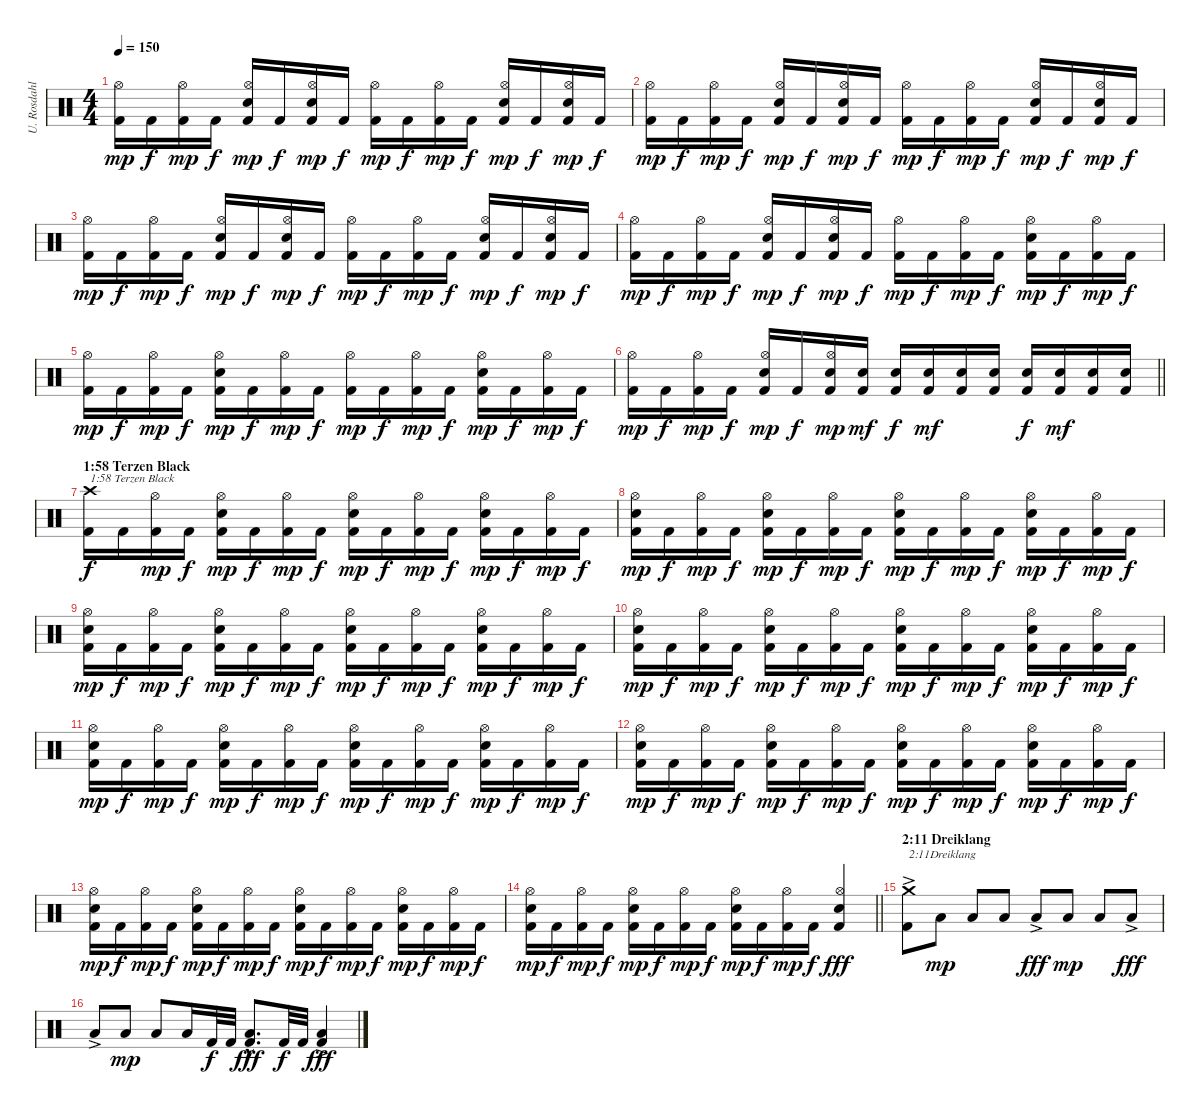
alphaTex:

\track ("U. Rosdahl" "U. Rosdahl") {instrument percussion}
\staff {score}
\articulation defaults
\ts (4 4)
\tempo 150
\clef neutral
\ks c
("Kick (hit) 2" "Hi-Hat (open)").16{dy mp} "Kick (hit) 2".16{dy f} ("Kick (hit) 2" "Hi-Hat (open)").16{dy mp} "Kick (hit) 2".16{dy f} ("Kick (hit) 2" "Electric Snare (hit)" "Hi-Hat (open)").16{dy mp} "Kick (hit) 2".16{dy f} ("Kick (hit) 2" "Electric Snare (hit)" "Hi-Hat (open)").16{dy mp} "Kick (hit) 2".16{dy f} ("Kick (hit) 2" "Hi-Hat (open)").16{dy mp} "Kick (hit) 2".16{dy f} ("Kick (hit) 2" "Hi-Hat (open)").16{dy mp} "Kick (hit) 2".16{dy f} ("Kick (hit) 2" "Electric Snare (hit)" "Hi-Hat (open)").16{dy mp} "Kick (hit) 2".16{dy f} ("Kick (hit) 2" "Electric Snare (hit)" "Hi-Hat (open)").16{dy mp} "Kick (hit) 2".16{dy f} |
("Kick (hit) 2" "Hi-Hat (open)").16{dy mp} "Kick (hit) 2".16{dy f} ("Kick (hit) 2" "Hi-Hat (open)").16{dy mp} "Kick (hit) 2".16{dy f} ("Kick (hit) 2" "Electric Snare (hit)" "Hi-Hat (open)").16{dy mp} "Kick (hit) 2".16{dy f} ("Kick (hit) 2" "Electric Snare (hit)" "Hi-Hat (open)").16{dy mp} "Kick (hit) 2".16{dy f} ("Kick (hit) 2" "Hi-Hat (open)").16{dy mp} "Kick (hit) 2".16{dy f} ("Kick (hit) 2" "Hi-Hat (open)").16{dy mp} "Kick (hit) 2".16{dy f} ("Kick (hit) 2" "Electric Snare (hit)" "Hi-Hat (open)").16{dy mp} "Kick (hit) 2".16{dy f} ("Kick (hit) 2" "Electric Snare (hit)" "Hi-Hat (open)").16{dy mp} "Kick (hit) 2".16{dy f} |
("Kick (hit) 2" "Hi-Hat (open)").16{dy mp} "Kick (hit) 2".16{dy f} ("Kick (hit) 2" "Hi-Hat (open)").16{dy mp} "Kick (hit) 2".16{dy f} ("Kick (hit) 2" "Electric Snare (hit)" "Hi-Hat (open)").16{dy mp} "Kick (hit) 2".16{dy f} ("Kick (hit) 2" "Electric Snare (hit)" "Hi-Hat (open)").16{dy mp} "Kick (hit) 2".16{dy f} ("Kick (hit) 2" "Hi-Hat (open)").16{dy mp} "Kick (hit) 2".16{dy f} ("Kick (hit) 2" "Hi-Hat (open)").16{dy mp} "Kick (hit) 2".16{dy f} ("Kick (hit) 2" "Electric Snare (hit)" "Hi-Hat (open)").16{dy mp} "Kick (hit) 2".16{dy f} ("Kick (hit) 2" "Electric Snare (hit)" "Hi-Hat (open)").16{dy mp} "Kick (hit) 2".16{dy f} |
("Kick (hit) 2" "Hi-Hat (open)").16{dy mp} "Kick (hit) 2".16{dy f} ("Kick (hit) 2" "Hi-Hat (open)").16{dy mp} "Kick (hit) 2".16{dy f} ("Kick (hit) 2" "Electric Snare (hit)" "Hi-Hat (open)").16{dy mp} "Kick (hit) 2".16{dy f} ("Kick (hit) 2" "Electric Snare (hit)" "Hi-Hat (open)").16{dy mp} "Kick (hit) 2".16{dy f} ("Kick (hit) 2" "Hi-Hat (open)").16{dy mp} "Kick (hit) 2".16{dy f} ("Kick (hit) 2" "Hi-Hat (open)").16{dy mp} "Kick (hit) 2".16{dy f} ("Kick (hit) 2" "Electric Snare (hit)" "Hi-Hat (open)").16{dy mp} "Kick (hit) 2".16{dy f} ("Kick (hit) 2" "Hi-Hat (open)").16{dy mp} "Kick (hit) 2".16{dy f} |
("Kick (hit) 2" "Hi-Hat (open)").16{dy mp} "Kick (hit) 2".16{dy f} ("Kick (hit) 2" "Hi-Hat (open)").16{dy mp} "Kick (hit) 2".16{dy f} ("Kick (hit) 2" "Electric Snare (hit)" "Hi-Hat (open)").16{dy mp} "Kick (hit) 2".16{dy f} ("Kick (hit) 2" "Hi-Hat (open)").16{dy mp} "Kick (hit) 2".16{dy f} ("Kick (hit) 2" "Hi-Hat (open)").16{dy mp} "Kick (hit) 2".16{dy f} ("Kick (hit) 2" "Hi-Hat (open)").16{dy mp} "Kick (hit) 2".16{dy f} ("Kick (hit) 2" "Electric Snare (hit)" "Hi-Hat (open)").16{dy mp} "Kick (hit) 2".16{dy f} ("Kick (hit) 2" "Hi-Hat (open)").16{dy mp} "Kick (hit) 2".16{dy f} |
\barLineRight lightlight
("Kick (hit) 2" "Hi-Hat (open)").16{dy mp} "Kick (hit) 2".16{dy f} ("Kick (hit) 2" "Hi-Hat (open)").16{dy mp} "Kick (hit) 2".16{dy f} ("Kick (hit) 2" "Electric Snare (hit)" "Hi-Hat (open)").16{dy mp} "Kick (hit) 2".16{dy f} ("Kick (hit) 2" "Electric Snare (hit)" "Hi-Hat (open)").16{dy mp} ("Kick (hit) 2" "Electric Snare (hit)").16{dy mf} ("Kick (hit) 2" "Electric Snare (hit)").16{dy f} ("Kick (hit) 2" "Electric Snare (hit)").16{dy mf} ("Kick (hit) 2" "Electric Snare (hit)").16 ("Kick (hit) 2" "Electric Snare (hit)").16 ("Kick (hit) 2" "Electric Snare (hit)").16{dy f} ("Kick (hit) 2" "Electric Snare (hit)").16{dy mf} ("Kick (hit) 2" "Electric Snare (hit)").16 ("Kick (hit) 2" "Electric Snare (hit)").16 |
\section ("" "1:58 Terzen Black")
("Kick (hit) 2" "Crash high (hit)").16{txt "1:58 Terzen Black" dy f} "Kick (hit) 2".16 ("Kick (hit) 2" "Hi-Hat (open)").16{dy mp} "Kick (hit) 2".16{dy f} ("Kick (hit) 2" "Electric Snare (hit)" "Hi-Hat (open)").16{dy mp} "Kick (hit) 2".16{dy f} ("Kick (hit) 2" "Hi-Hat (open)").16{dy mp} "Kick (hit) 2".16{dy f} ("Kick (hit) 2" "Electric Snare (hit)" "Hi-Hat (open)").16{dy mp} "Kick (hit) 2".16{dy f} ("Kick (hit) 2" "Hi-Hat (open)").16{dy mp} "Kick (hit) 2".16{dy f} ("Kick (hit) 2" "Electric Snare (hit)" "Hi-Hat (open)").16{dy mp} "Kick (hit) 2".16{dy f} ("Kick (hit) 2" "Hi-Hat (open)").16{dy mp} "Kick (hit) 2".16{dy f} |
("Kick (hit) 2" "Electric Snare (hit)" "Hi-Hat (open)").16{dy mp} "Kick (hit) 2".16{dy f} ("Kick (hit) 2" "Hi-Hat (open)").16{dy mp} "Kick (hit) 2".16{dy f} ("Kick (hit) 2" "Electric Snare (hit)" "Hi-Hat (open)").16{dy mp} "Kick (hit) 2".16{dy f} ("Kick (hit) 2" "Hi-Hat (open)").16{dy mp} "Kick (hit) 2".16{dy f} ("Kick (hit) 2" "Electric Snare (hit)" "Hi-Hat (open)").16{dy mp} "Kick (hit) 2".16{dy f} ("Kick (hit) 2" "Hi-Hat (open)").16{dy mp} "Kick (hit) 2".16{dy f} ("Kick (hit) 2" "Electric Snare (hit)" "Hi-Hat (open)").16{dy mp} "Kick (hit) 2".16{dy f} ("Kick (hit) 2" "Hi-Hat (open)").16{dy mp} "Kick (hit) 2".16{dy f} |
("Kick (hit) 2" "Electric Snare (hit)" "Hi-Hat (open)").16{dy mp} "Kick (hit) 2".16{dy f} ("Kick (hit) 2" "Hi-Hat (open)").16{dy mp} "Kick (hit) 2".16{dy f} ("Kick (hit) 2" "Electric Snare (hit)" "Hi-Hat (open)").16{dy mp} "Kick (hit) 2".16{dy f} ("Kick (hit) 2" "Hi-Hat (open)").16{dy mp} "Kick (hit) 2".16{dy f} ("Kick (hit) 2" "Electric Snare (hit)" "Hi-Hat (open)").16{dy mp} "Kick (hit) 2".16{dy f} ("Kick (hit) 2" "Hi-Hat (open)").16{dy mp} "Kick (hit) 2".16{dy f} ("Kick (hit) 2" "Electric Snare (hit)" "Hi-Hat (open)").16{dy mp} "Kick (hit) 2".16{dy f} ("Kick (hit) 2" "Hi-Hat (open)").16{dy mp} "Kick (hit) 2".16{dy f} |
("Kick (hit) 2" "Electric Snare (hit)" "Hi-Hat (open)").16{dy mp} "Kick (hit) 2".16{dy f} ("Kick (hit) 2" "Hi-Hat (open)").16{dy mp} "Kick (hit) 2".16{dy f} ("Kick (hit) 2" "Electric Snare (hit)" "Hi-Hat (open)").16{dy mp} "Kick (hit) 2".16{dy f} ("Kick (hit) 2" "Hi-Hat (open)").16{dy mp} "Kick (hit) 2".16{dy f} ("Kick (hit) 2" "Electric Snare (hit)" "Hi-Hat (open)").16{dy mp} "Kick (hit) 2".16{dy f} ("Kick (hit) 2" "Hi-Hat (open)").16{dy mp} "Kick (hit) 2".16{dy f} ("Kick (hit) 2" "Electric Snare (hit)" "Hi-Hat (open)").16{dy mp} "Kick (hit) 2".16{dy f} ("Kick (hit) 2" "Hi-Hat (open)").16{dy mp} "Kick (hit) 2".16{dy f} |
("Kick (hit) 2" "Electric Snare (hit)" "Hi-Hat (open)").16{dy mp} "Kick (hit) 2".16{dy f} ("Kick (hit) 2" "Hi-Hat (open)").16{dy mp} "Kick (hit) 2".16{dy f} ("Kick (hit) 2" "Electric Snare (hit)" "Hi-Hat (open)").16{dy mp} "Kick (hit) 2".16{dy f} ("Kick (hit) 2" "Hi-Hat (open)").16{dy mp} "Kick (hit) 2".16{dy f} ("Kick (hit) 2" "Electric Snare (hit)" "Hi-Hat (open)").16{dy mp} "Kick (hit) 2".16{dy f} ("Kick (hit) 2" "Hi-Hat (open)").16{dy mp} "Kick (hit) 2".16{dy f} ("Kick (hit) 2" "Electric Snare (hit)" "Hi-Hat (open)").16{dy mp} "Kick (hit) 2".16{dy f} ("Kick (hit) 2" "Hi-Hat (open)").16{dy mp} "Kick (hit) 2".16{dy f} |
("Kick (hit) 2" "Electric Snare (hit)" "Hi-Hat (open)").16{dy mp} "Kick (hit) 2".16{dy f} ("Kick (hit) 2" "Hi-Hat (open)").16{dy mp} "Kick (hit) 2".16{dy f} ("Kick (hit) 2" "Electric Snare (hit)" "Hi-Hat (open)").16{dy mp} "Kick (hit) 2".16{dy f} ("Kick (hit) 2" "Hi-Hat (open)").16{dy mp} "Kick (hit) 2".16{dy f} ("Kick (hit) 2" "Electric Snare (hit)" "Hi-Hat (open)").16{dy mp} "Kick (hit) 2".16{dy f} ("Kick (hit) 2" "Hi-Hat (open)").16{dy mp} "Kick (hit) 2".16{dy f} ("Kick (hit) 2" "Electric Snare (hit)" "Hi-Hat (open)").16{dy mp} "Kick (hit) 2".16{dy f} ("Kick (hit) 2" "Hi-Hat (open)").16{dy mp} "Kick (hit) 2".16{dy f} |
("Kick (hit) 2" "Electric Snare (hit)" "Hi-Hat (open)").16{dy mp} "Kick (hit) 2".16{dy f} ("Kick (hit) 2" "Hi-Hat (open)").16{dy mp} "Kick (hit) 2".16{dy f} ("Kick (hit) 2" "Electric Snare (hit)" "Hi-Hat (open)").16{dy mp} "Kick (hit) 2".16{dy f} ("Kick (hit) 2" "Hi-Hat (open)").16{dy mp} "Kick (hit) 2".16{dy f} ("Kick (hit) 2" "Electric Snare (hit)" "Hi-Hat (open)").16{dy mp} "Kick (hit) 2".16{dy f} ("Kick (hit) 2" "Hi-Hat (open)").16{dy mp} "Kick (hit) 2".16{dy f} ("Kick (hit) 2" "Electric Snare (hit)" "Hi-Hat (open)").16{dy mp} "Kick (hit) 2".16{dy f} ("Kick (hit) 2" "Hi-Hat (open)").16{dy mp} "Kick (hit) 2".16{dy f} |
\barLineRight lightlight
("Kick (hit) 2" "Electric Snare (hit)" "Hi-Hat (open)").16{dy mp} "Kick (hit) 2".16{dy f} ("Kick (hit) 2" "Hi-Hat (open)").16{dy mp} "Kick (hit) 2".16{dy f} ("Kick (hit) 2" "Electric Snare (hit)" "Hi-Hat (open)").16{dy mp} "Kick (hit) 2".16{dy f} ("Kick (hit) 2" "Hi-Hat (open)").16{dy mp} "Kick (hit) 2".16{dy f} ("Kick (hit) 2" "Electric Snare (hit)" "Hi-Hat (open)").16{dy mp} "Kick (hit) 2".16{dy f} ("Kick (hit) 2" "Hi-Hat (open)").16{dy mp} "Kick (hit) 2".16{dy f} ("Kick (hit) 2" "Electric Snare (hit)" "Hi-Hat (open)").4{dy fff} |
\section ("" "2:11 Dreiklang")
("Kick (hit) 2" "Crash medium (hit)"{ac}).8{txt "2:11Dreiklang"} "Low Tom (hit)".8{dy mp} "Low Tom (hit)".8 "Low Tom (hit)".8 "Low Tom (hit)"{ac}.8{dy fff} "Low Tom (hit)".8{dy mp} "Low Tom (hit)".8 "Low Tom (hit)"{ac}.8{dy fff} |
"Low Tom (hit)"{ac}.8 "Low Tom (hit)".8{dy mp} "Low Tom (hit)".8 "Low Tom (hit)".16 "Kick (hit) 2".32{dy f} "Kick (hit) 2".32 ("Kick (hit) 2"{hac} "Low Tom (hit)"{hac}).8{d dy fff} "Kick (hit) 2".32{dy f} "Kick (hit) 2".32 ("Kick (hit) 2" "Low Tom (hit)"{ac}).4{dy fff}
